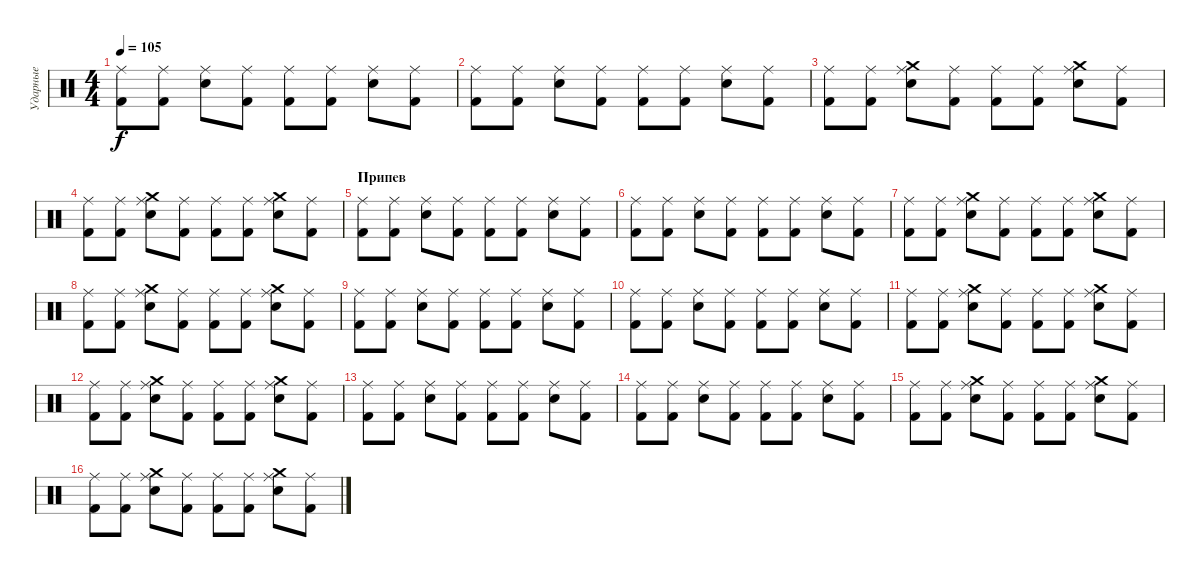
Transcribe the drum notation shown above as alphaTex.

\track ("Ударные" "Ударные") {instrument percussion}
\staff {score}
\articulation defaults
\ts (4 4)
\tempo 105
\clef neutral
\ks c
("Ride (middle)" "Kick (hit) 2").8{dy f} ("Ride (middle)" "Kick (hit) 2").8 ("Ride (middle)" "Electric Snare (hit)").8 ("Ride (middle)" "Kick (hit) 2").8 ("Ride (middle)" "Kick (hit) 2").8 ("Ride (middle)" "Kick (hit) 2").8 ("Ride (middle)" "Electric Snare (hit)").8 ("Ride (middle)" "Kick (hit) 2").8 |
("Ride (middle)" "Kick (hit) 2").8 ("Ride (middle)" "Kick (hit) 2").8 ("Ride (middle)" "Electric Snare (hit)").8 ("Ride (middle)" "Kick (hit) 2").8 ("Ride (middle)" "Kick (hit) 2").8 ("Ride (middle)" "Kick (hit) 2").8 ("Ride (middle)" "Electric Snare (hit)").8 ("Ride (middle)" "Kick (hit) 2").8 |
("Ride (middle)" "Kick (hit) 2").8 ("Ride (middle)" "Kick (hit) 2").8 ("Crash medium (hit)" "Ride (middle)" "Electric Snare (hit)").8 ("Ride (middle)" "Kick (hit) 2").8 ("Ride (middle)" "Kick (hit) 2").8 ("Ride (middle)" "Kick (hit) 2").8 ("Crash medium (hit)" "Ride (middle)" "Electric Snare (hit)").8 ("Ride (middle)" "Kick (hit) 2").8 |
("Ride (middle)" "Kick (hit) 2").8 ("Ride (middle)" "Kick (hit) 2").8 ("Crash medium (hit)" "Ride (middle)" "Electric Snare (hit)").8 ("Ride (middle)" "Kick (hit) 2").8 ("Ride (middle)" "Kick (hit) 2").8 ("Ride (middle)" "Kick (hit) 2").8 ("Crash medium (hit)" "Ride (middle)" "Electric Snare (hit)").8 ("Ride (middle)" "Kick (hit) 2").8 |
\section ("" "Припев")
("Ride (middle)" "Kick (hit) 2").8 ("Ride (middle)" "Kick (hit) 2").8 ("Ride (middle)" "Electric Snare (hit)").8 ("Ride (middle)" "Kick (hit) 2").8 ("Ride (middle)" "Kick (hit) 2").8 ("Ride (middle)" "Kick (hit) 2").8 ("Ride (middle)" "Electric Snare (hit)").8 ("Ride (middle)" "Kick (hit) 2").8 |
("Ride (middle)" "Kick (hit) 2").8 ("Ride (middle)" "Kick (hit) 2").8 ("Ride (middle)" "Electric Snare (hit)").8 ("Ride (middle)" "Kick (hit) 2").8 ("Ride (middle)" "Kick (hit) 2").8 ("Ride (middle)" "Kick (hit) 2").8 ("Ride (middle)" "Electric Snare (hit)").8 ("Ride (middle)" "Kick (hit) 2").8 |
("Ride (middle)" "Kick (hit) 2").8 ("Ride (middle)" "Kick (hit) 2").8 ("Crash medium (hit)" "Ride (middle)" "Electric Snare (hit)").8 ("Ride (middle)" "Kick (hit) 2").8 ("Ride (middle)" "Kick (hit) 2").8 ("Ride (middle)" "Kick (hit) 2").8 ("Crash medium (hit)" "Ride (middle)" "Electric Snare (hit)").8 ("Ride (middle)" "Kick (hit) 2").8 |
("Ride (middle)" "Kick (hit) 2").8 ("Ride (middle)" "Kick (hit) 2").8 ("Crash medium (hit)" "Ride (middle)" "Electric Snare (hit)").8 ("Ride (middle)" "Kick (hit) 2").8 ("Ride (middle)" "Kick (hit) 2").8 ("Ride (middle)" "Kick (hit) 2").8 ("Crash medium (hit)" "Ride (middle)" "Electric Snare (hit)").8 ("Ride (middle)" "Kick (hit) 2").8 |
("Ride (middle)" "Kick (hit) 2").8 ("Ride (middle)" "Kick (hit) 2").8 ("Ride (middle)" "Electric Snare (hit)").8 ("Ride (middle)" "Kick (hit) 2").8 ("Ride (middle)" "Kick (hit) 2").8 ("Ride (middle)" "Kick (hit) 2").8 ("Ride (middle)" "Electric Snare (hit)").8 ("Ride (middle)" "Kick (hit) 2").8 |
("Ride (middle)" "Kick (hit) 2").8 ("Ride (middle)" "Kick (hit) 2").8 ("Ride (middle)" "Electric Snare (hit)").8 ("Ride (middle)" "Kick (hit) 2").8 ("Ride (middle)" "Kick (hit) 2").8 ("Ride (middle)" "Kick (hit) 2").8 ("Ride (middle)" "Electric Snare (hit)").8 ("Ride (middle)" "Kick (hit) 2").8 |
("Ride (middle)" "Kick (hit) 2").8 ("Ride (middle)" "Kick (hit) 2").8 ("Crash medium (hit)" "Ride (middle)" "Electric Snare (hit)").8 ("Ride (middle)" "Kick (hit) 2").8 ("Ride (middle)" "Kick (hit) 2").8 ("Ride (middle)" "Kick (hit) 2").8 ("Crash medium (hit)" "Ride (middle)" "Electric Snare (hit)").8 ("Ride (middle)" "Kick (hit) 2").8 |
("Ride (middle)" "Kick (hit) 2").8 ("Ride (middle)" "Kick (hit) 2").8 ("Crash medium (hit)" "Ride (middle)" "Electric Snare (hit)").8 ("Ride (middle)" "Kick (hit) 2").8 ("Ride (middle)" "Kick (hit) 2").8 ("Ride (middle)" "Kick (hit) 2").8 ("Crash medium (hit)" "Ride (middle)" "Electric Snare (hit)").8 ("Ride (middle)" "Kick (hit) 2").8 |
("Ride (middle)" "Kick (hit) 2").8 ("Ride (middle)" "Kick (hit) 2").8 ("Ride (middle)" "Electric Snare (hit)").8 ("Ride (middle)" "Kick (hit) 2").8 ("Ride (middle)" "Kick (hit) 2").8 ("Ride (middle)" "Kick (hit) 2").8 ("Ride (middle)" "Electric Snare (hit)").8 ("Ride (middle)" "Kick (hit) 2").8 |
("Ride (middle)" "Kick (hit) 2").8 ("Ride (middle)" "Kick (hit) 2").8 ("Ride (middle)" "Electric Snare (hit)").8 ("Ride (middle)" "Kick (hit) 2").8 ("Ride (middle)" "Kick (hit) 2").8 ("Ride (middle)" "Kick (hit) 2").8 ("Ride (middle)" "Electric Snare (hit)").8 ("Ride (middle)" "Kick (hit) 2").8 |
("Ride (middle)" "Kick (hit) 2").8 ("Ride (middle)" "Kick (hit) 2").8 ("Crash medium (hit)" "Ride (middle)" "Electric Snare (hit)").8 ("Ride (middle)" "Kick (hit) 2").8 ("Ride (middle)" "Kick (hit) 2").8 ("Ride (middle)" "Kick (hit) 2").8 ("Crash medium (hit)" "Ride (middle)" "Electric Snare (hit)").8 ("Ride (middle)" "Kick (hit) 2").8 |
("Ride (middle)" "Kick (hit) 2").8 ("Ride (middle)" "Kick (hit) 2").8 ("Crash medium (hit)" "Ride (middle)" "Electric Snare (hit)").8 ("Ride (middle)" "Kick (hit) 2").8 ("Ride (middle)" "Kick (hit) 2").8 ("Ride (middle)" "Kick (hit) 2").8 ("Crash medium (hit)" "Ride (middle)" "Electric Snare (hit)").8 ("Ride (middle)" "Kick (hit) 2").8
